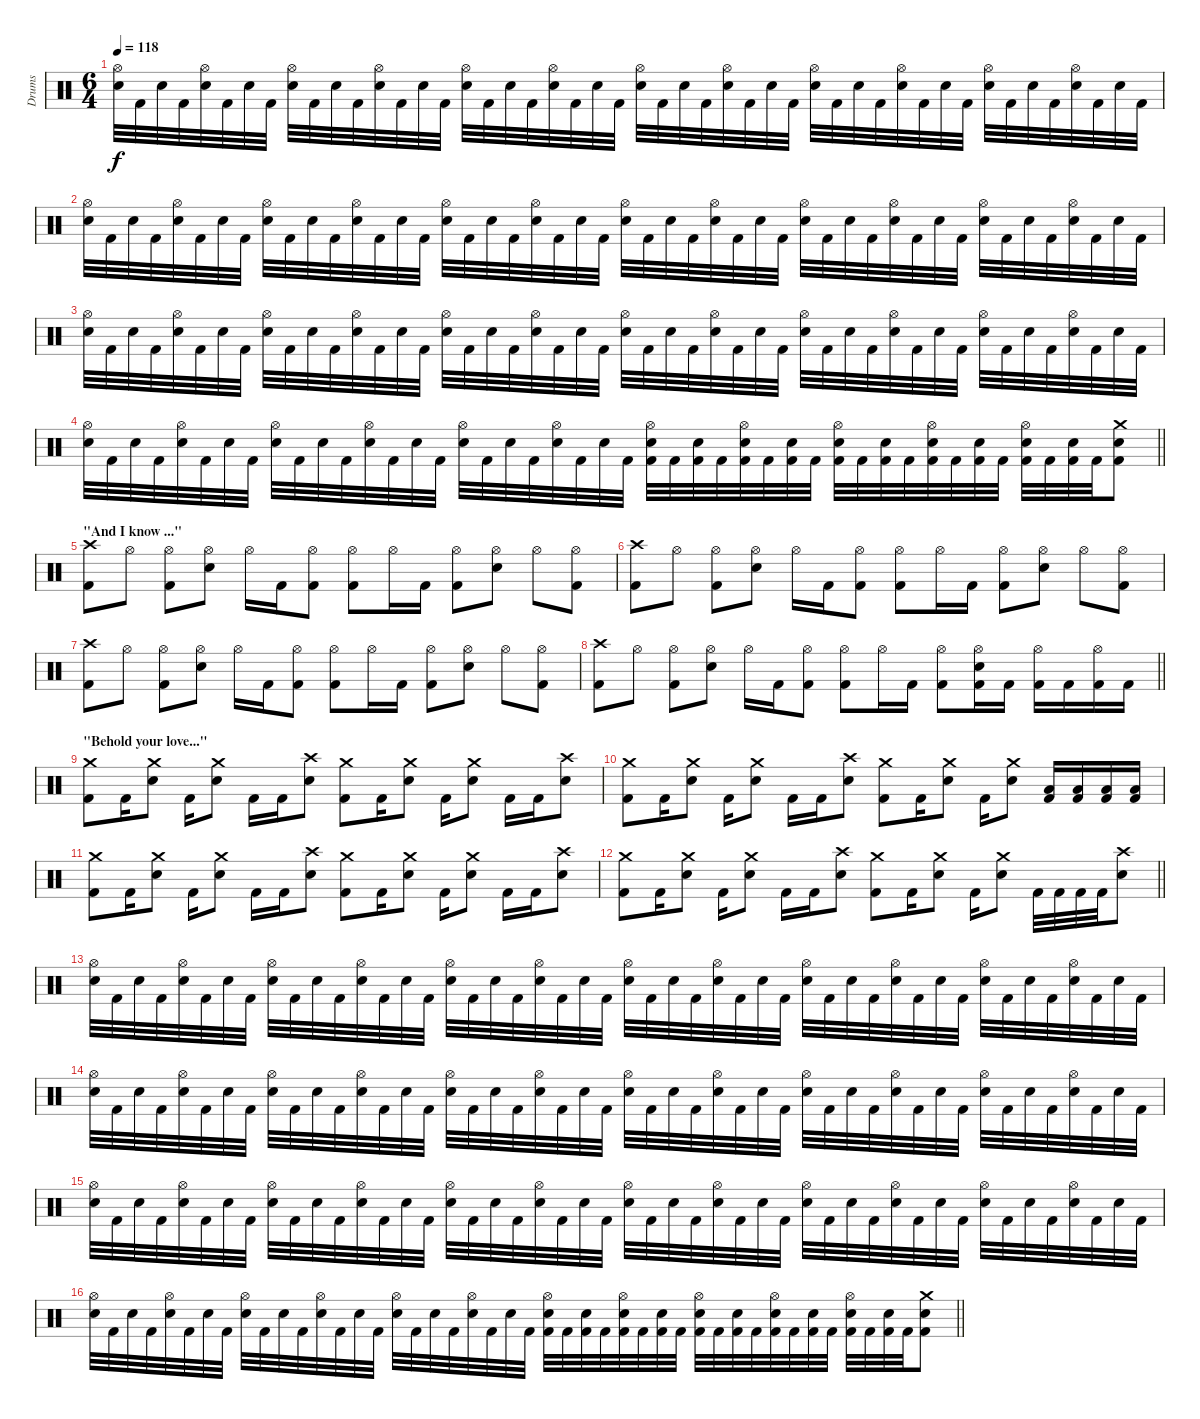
\track ("Drums" "Drums") {instrument percussion}
\staff {score}
\articulation defaults
\ts (6 4)
\section ("" "")
\tempo 118
\clef neutral
\ks c
("Hi-Hat (open)" "Electric Snare (hit)").32{dy f} "Kick (hit) 2".32 "Electric Snare (hit)".32 "Kick (hit) 2".32 ("Hi-Hat (open)" "Electric Snare (hit)").32 "Kick (hit) 2".32 "Electric Snare (hit)".32 "Kick (hit) 2".32 ("Hi-Hat (open)" "Electric Snare (hit)").32 "Kick (hit) 2".32 "Electric Snare (hit)".32 "Kick (hit) 2".32 ("Hi-Hat (open)" "Electric Snare (hit)").32 "Kick (hit) 2".32 "Electric Snare (hit)".32 "Kick (hit) 2".32 ("Hi-Hat (open)" "Electric Snare (hit)").32 "Kick (hit) 2".32 "Electric Snare (hit)".32 "Kick (hit) 2".32 ("Hi-Hat (open)" "Electric Snare (hit)").32 "Kick (hit) 2".32 "Electric Snare (hit)".32 "Kick (hit) 2".32 ("Hi-Hat (open)" "Electric Snare (hit)").32 "Kick (hit) 2".32 "Electric Snare (hit)".32 "Kick (hit) 2".32 ("Hi-Hat (open)" "Electric Snare (hit)").32 "Kick (hit) 2".32 "Electric Snare (hit)".32 "Kick (hit) 2".32 ("Hi-Hat (open)" "Electric Snare (hit)").32 "Kick (hit) 2".32 "Electric Snare (hit)".32 "Kick (hit) 2".32 ("Hi-Hat (open)" "Electric Snare (hit)").32 "Kick (hit) 2".32 "Electric Snare (hit)".32 "Kick (hit) 2".32 ("Hi-Hat (open)" "Electric Snare (hit)").32 "Kick (hit) 2".32 "Electric Snare (hit)".32 "Kick (hit) 2".32 ("Hi-Hat (open)" "Electric Snare (hit)").32 "Kick (hit) 2".32 "Electric Snare (hit)".32 "Kick (hit) 2".32 |
("Hi-Hat (open)" "Electric Snare (hit)").32 "Kick (hit) 2".32 "Electric Snare (hit)".32 "Kick (hit) 2".32 ("Hi-Hat (open)" "Electric Snare (hit)").32 "Kick (hit) 2".32 "Electric Snare (hit)".32 "Kick (hit) 2".32 ("Hi-Hat (open)" "Electric Snare (hit)").32 "Kick (hit) 2".32 "Electric Snare (hit)".32 "Kick (hit) 2".32 ("Hi-Hat (open)" "Electric Snare (hit)").32 "Kick (hit) 2".32 "Electric Snare (hit)".32 "Kick (hit) 2".32 ("Hi-Hat (open)" "Electric Snare (hit)").32 "Kick (hit) 2".32 "Electric Snare (hit)".32 "Kick (hit) 2".32 ("Hi-Hat (open)" "Electric Snare (hit)").32 "Kick (hit) 2".32 "Electric Snare (hit)".32 "Kick (hit) 2".32 ("Hi-Hat (open)" "Electric Snare (hit)").32 "Kick (hit) 2".32 "Electric Snare (hit)".32 "Kick (hit) 2".32 ("Hi-Hat (open)" "Electric Snare (hit)").32 "Kick (hit) 2".32 "Electric Snare (hit)".32 "Kick (hit) 2".32 ("Hi-Hat (open)" "Electric Snare (hit)").32 "Kick (hit) 2".32 "Electric Snare (hit)".32 "Kick (hit) 2".32 ("Hi-Hat (open)" "Electric Snare (hit)").32 "Kick (hit) 2".32 "Electric Snare (hit)".32 "Kick (hit) 2".32 ("Hi-Hat (open)" "Electric Snare (hit)").32 "Kick (hit) 2".32 "Electric Snare (hit)".32 "Kick (hit) 2".32 ("Hi-Hat (open)" "Electric Snare (hit)").32 "Kick (hit) 2".32 "Electric Snare (hit)".32 "Kick (hit) 2".32 |
("Hi-Hat (open)" "Electric Snare (hit)").32 "Kick (hit) 2".32 "Electric Snare (hit)".32 "Kick (hit) 2".32 ("Hi-Hat (open)" "Electric Snare (hit)").32 "Kick (hit) 2".32 "Electric Snare (hit)".32 "Kick (hit) 2".32 ("Hi-Hat (open)" "Electric Snare (hit)").32 "Kick (hit) 2".32 "Electric Snare (hit)".32 "Kick (hit) 2".32 ("Hi-Hat (open)" "Electric Snare (hit)").32 "Kick (hit) 2".32 "Electric Snare (hit)".32 "Kick (hit) 2".32 ("Hi-Hat (open)" "Electric Snare (hit)").32 "Kick (hit) 2".32 "Electric Snare (hit)".32 "Kick (hit) 2".32 ("Hi-Hat (open)" "Electric Snare (hit)").32 "Kick (hit) 2".32 "Electric Snare (hit)".32 "Kick (hit) 2".32 ("Hi-Hat (open)" "Electric Snare (hit)").32 "Kick (hit) 2".32 "Electric Snare (hit)".32 "Kick (hit) 2".32 ("Hi-Hat (open)" "Electric Snare (hit)").32 "Kick (hit) 2".32 "Electric Snare (hit)".32 "Kick (hit) 2".32 ("Hi-Hat (open)" "Electric Snare (hit)").32 "Kick (hit) 2".32 "Electric Snare (hit)".32 "Kick (hit) 2".32 ("Hi-Hat (open)" "Electric Snare (hit)").32 "Kick (hit) 2".32 "Electric Snare (hit)".32 "Kick (hit) 2".32 ("Hi-Hat (open)" "Electric Snare (hit)").32 "Kick (hit) 2".32 "Electric Snare (hit)".32 "Kick (hit) 2".32 ("Hi-Hat (open)" "Electric Snare (hit)").32 "Kick (hit) 2".32 "Electric Snare (hit)".32 "Kick (hit) 2".32 |
\barLineRight lightlight
("Hi-Hat (open)" "Electric Snare (hit)").32 "Kick (hit) 2".32 "Electric Snare (hit)".32 "Kick (hit) 2".32 ("Hi-Hat (open)" "Electric Snare (hit)").32 "Kick (hit) 2".32 "Electric Snare (hit)".32 "Kick (hit) 2".32 ("Hi-Hat (open)" "Electric Snare (hit)").32 "Kick (hit) 2".32 "Electric Snare (hit)".32 "Kick (hit) 2".32 ("Hi-Hat (open)" "Electric Snare (hit)").32 "Kick (hit) 2".32 "Electric Snare (hit)".32 "Kick (hit) 2".32 ("Hi-Hat (open)" "Electric Snare (hit)").32 "Kick (hit) 2".32 "Electric Snare (hit)".32 "Kick (hit) 2".32 ("Hi-Hat (open)" "Electric Snare (hit)").32 "Kick (hit) 2".32 "Electric Snare (hit)".32 "Kick (hit) 2".32 ("Hi-Hat (open)" "Electric Snare (hit)" "Kick (hit) 2").32 "Kick (hit) 2".32 ("Electric Snare (hit)" "Kick (hit) 2").32 "Kick (hit) 2".32 ("Hi-Hat (open)" "Electric Snare (hit)" "Kick (hit) 2").32 "Kick (hit) 2".32 ("Electric Snare (hit)" "Kick (hit) 2").32 "Kick (hit) 2".32 ("Hi-Hat (open)" "Electric Snare (hit)" "Kick (hit) 2").32 "Kick (hit) 2".32 ("Electric Snare (hit)" "Kick (hit) 2").32 "Kick (hit) 2".32 ("Hi-Hat (open)" "Electric Snare (hit)" "Kick (hit) 2").32 "Kick (hit) 2".32 ("Electric Snare (hit)" "Kick (hit) 2").32 "Kick (hit) 2".32 ("Hi-Hat (open)" "Electric Snare (hit)" "Kick (hit) 2").32 "Kick (hit) 2".32 ("Electric Snare (hit)" "Kick (hit) 2").32 "Kick (hit) 2".32 ("Crash medium (hit)" "Electric Snare (hit)" "Kick (hit) 2").8 |
\section ("" "\"And I know ...\"")
("Crash high (hit)" "Kick (hit) 2").8 "Hi-Hat (open)".8 ("Hi-Hat (open)" "Kick (hit) 2").8 ("Hi-Hat (open)" "Electric Snare (hit)").8 "Hi-Hat (open)".16 "Kick (hit) 2".16 ("Hi-Hat (open)" "Kick (hit) 2").8 ("Hi-Hat (open)" "Kick (hit) 2").8 "Hi-Hat (open)".16 "Kick (hit) 2".16 ("Hi-Hat (open)" "Kick (hit) 2").8 ("Hi-Hat (open)" "Electric Snare (hit)").8 "Hi-Hat (open)".8 ("Hi-Hat (open)" "Kick (hit) 2").8 |
("Crash high (hit)" "Kick (hit) 2").8 "Hi-Hat (open)".8 ("Hi-Hat (open)" "Kick (hit) 2").8 ("Hi-Hat (open)" "Electric Snare (hit)").8 "Hi-Hat (open)".16 "Kick (hit) 2".16 ("Hi-Hat (open)" "Kick (hit) 2").8 ("Hi-Hat (open)" "Kick (hit) 2").8 "Hi-Hat (open)".16 "Kick (hit) 2".16 ("Hi-Hat (open)" "Kick (hit) 2").8 ("Hi-Hat (open)" "Electric Snare (hit)").8 "Hi-Hat (open)".8 ("Hi-Hat (open)" "Kick (hit) 2").8 |
("Crash high (hit)" "Kick (hit) 2").8 "Hi-Hat (open)".8 ("Hi-Hat (open)" "Kick (hit) 2").8 ("Hi-Hat (open)" "Electric Snare (hit)").8 "Hi-Hat (open)".16 "Kick (hit) 2".16 ("Hi-Hat (open)" "Kick (hit) 2").8 ("Hi-Hat (open)" "Kick (hit) 2").8 "Hi-Hat (open)".16 "Kick (hit) 2".16 ("Hi-Hat (open)" "Kick (hit) 2").8 ("Hi-Hat (open)" "Electric Snare (hit)").8 "Hi-Hat (open)".8 ("Hi-Hat (open)" "Kick (hit) 2").8 |
\barLineRight lightlight
("Crash high (hit)" "Kick (hit) 2").8 "Hi-Hat (open)".8 ("Hi-Hat (open)" "Kick (hit) 2").8 ("Hi-Hat (open)" "Electric Snare (hit)").8 "Hi-Hat (open)".16 "Kick (hit) 2".16 ("Hi-Hat (open)" "Kick (hit) 2").8 ("Hi-Hat (open)" "Kick (hit) 2").8 "Hi-Hat (open)".16 "Kick (hit) 2".16 ("Hi-Hat (open)" "Kick (hit) 2").8 ("Hi-Hat (open)" "Electric Snare (hit)" "Kick (hit) 2").16 "Kick (hit) 2".16 ("Hi-Hat (open)" "Kick (hit) 2").16 "Kick (hit) 2".16 ("Hi-Hat (open)" "Kick (hit) 2").16 "Kick (hit) 2".16 |
\section ("" "\"Behold your love...\"")
("Crash medium (hit)" "Kick (hit) 2").8 "Kick (hit) 2".16 ("Crash medium (hit)" "Electric Snare (hit)").8 "Kick (hit) 2".16 ("Crash medium (hit)" "Electric Snare (hit)").8 "Kick (hit) 2".16 "Kick (hit) 2".16 ("Crash high (hit)" "Electric Snare (hit)").8 ("Crash medium (hit)" "Kick (hit) 2").8 "Kick (hit) 2".16 ("Crash medium (hit)" "Electric Snare (hit)").8 "Kick (hit) 2".16 ("Crash medium (hit)" "Electric Snare (hit)").8 "Kick (hit) 2".16 "Kick (hit) 2".16 ("Crash high (hit)" "Electric Snare (hit)").8 |
("Crash medium (hit)" "Kick (hit) 2").8 "Kick (hit) 2".16 ("Crash medium (hit)" "Electric Snare (hit)").8 "Kick (hit) 2".16 ("Crash medium (hit)" "Electric Snare (hit)").8 "Kick (hit) 2".16 "Kick (hit) 2".16 ("Crash high (hit)" "Electric Snare (hit)").8 ("Crash medium (hit)" "Kick (hit) 2").8 "Kick (hit) 2".16 ("Crash medium (hit)" "Electric Snare (hit)").8 "Kick (hit) 2".16 ("Crash medium (hit)" "Electric Snare (hit)").8 ("Low Tom (hit)" "Kick (hit) 2").16 ("Low Tom (hit)" "Kick (hit) 2").16 ("Low Tom (hit)" "Kick (hit) 2").16 ("Low Tom (hit)" "Kick (hit) 2").16 |
("Crash medium (hit)" "Kick (hit) 2").8 "Kick (hit) 2".16 ("Crash medium (hit)" "Electric Snare (hit)").8 "Kick (hit) 2".16 ("Crash medium (hit)" "Electric Snare (hit)").8 "Kick (hit) 2".16 "Kick (hit) 2".16 ("Crash high (hit)" "Electric Snare (hit)").8 ("Crash medium (hit)" "Kick (hit) 2").8 "Kick (hit) 2".16 ("Crash medium (hit)" "Electric Snare (hit)").8 "Kick (hit) 2".16 ("Crash medium (hit)" "Electric Snare (hit)").8 "Kick (hit) 2".16 "Kick (hit) 2".16 ("Crash high (hit)" "Electric Snare (hit)").8 |
\barLineRight lightlight
("Crash medium (hit)" "Kick (hit) 2").8 "Kick (hit) 2".16 ("Crash medium (hit)" "Electric Snare (hit)").8 "Kick (hit) 2".16 ("Crash medium (hit)" "Electric Snare (hit)").8 "Kick (hit) 2".16 "Kick (hit) 2".16 ("Crash high (hit)" "Electric Snare (hit)").8 ("Crash medium (hit)" "Kick (hit) 2").8 "Kick (hit) 2".16 ("Crash medium (hit)" "Electric Snare (hit)").8 "Kick (hit) 2".16 ("Crash medium (hit)" "Electric Snare (hit)").8 "Kick (hit) 2".32 "Kick (hit) 2".32 "Kick (hit) 2".32 "Kick (hit) 2".32 ("Crash high (hit)" "Electric Snare (hit)").8 |
\section ("" "")
("Hi-Hat (open)" "Electric Snare (hit)").32 "Kick (hit) 2".32 "Electric Snare (hit)".32 "Kick (hit) 2".32 ("Hi-Hat (open)" "Electric Snare (hit)").32 "Kick (hit) 2".32 "Electric Snare (hit)".32 "Kick (hit) 2".32 ("Hi-Hat (open)" "Electric Snare (hit)").32 "Kick (hit) 2".32 "Electric Snare (hit)".32 "Kick (hit) 2".32 ("Hi-Hat (open)" "Electric Snare (hit)").32 "Kick (hit) 2".32 "Electric Snare (hit)".32 "Kick (hit) 2".32 ("Hi-Hat (open)" "Electric Snare (hit)").32 "Kick (hit) 2".32 "Electric Snare (hit)".32 "Kick (hit) 2".32 ("Hi-Hat (open)" "Electric Snare (hit)").32 "Kick (hit) 2".32 "Electric Snare (hit)".32 "Kick (hit) 2".32 ("Hi-Hat (open)" "Electric Snare (hit)").32 "Kick (hit) 2".32 "Electric Snare (hit)".32 "Kick (hit) 2".32 ("Hi-Hat (open)" "Electric Snare (hit)").32 "Kick (hit) 2".32 "Electric Snare (hit)".32 "Kick (hit) 2".32 ("Hi-Hat (open)" "Electric Snare (hit)").32 "Kick (hit) 2".32 "Electric Snare (hit)".32 "Kick (hit) 2".32 ("Hi-Hat (open)" "Electric Snare (hit)").32 "Kick (hit) 2".32 "Electric Snare (hit)".32 "Kick (hit) 2".32 ("Hi-Hat (open)" "Electric Snare (hit)").32 "Kick (hit) 2".32 "Electric Snare (hit)".32 "Kick (hit) 2".32 ("Hi-Hat (open)" "Electric Snare (hit)").32 "Kick (hit) 2".32 "Electric Snare (hit)".32 "Kick (hit) 2".32 |
("Hi-Hat (open)" "Electric Snare (hit)").32 "Kick (hit) 2".32 "Electric Snare (hit)".32 "Kick (hit) 2".32 ("Hi-Hat (open)" "Electric Snare (hit)").32 "Kick (hit) 2".32 "Electric Snare (hit)".32 "Kick (hit) 2".32 ("Hi-Hat (open)" "Electric Snare (hit)").32 "Kick (hit) 2".32 "Electric Snare (hit)".32 "Kick (hit) 2".32 ("Hi-Hat (open)" "Electric Snare (hit)").32 "Kick (hit) 2".32 "Electric Snare (hit)".32 "Kick (hit) 2".32 ("Hi-Hat (open)" "Electric Snare (hit)").32 "Kick (hit) 2".32 "Electric Snare (hit)".32 "Kick (hit) 2".32 ("Hi-Hat (open)" "Electric Snare (hit)").32 "Kick (hit) 2".32 "Electric Snare (hit)".32 "Kick (hit) 2".32 ("Hi-Hat (open)" "Electric Snare (hit)").32 "Kick (hit) 2".32 "Electric Snare (hit)".32 "Kick (hit) 2".32 ("Hi-Hat (open)" "Electric Snare (hit)").32 "Kick (hit) 2".32 "Electric Snare (hit)".32 "Kick (hit) 2".32 ("Hi-Hat (open)" "Electric Snare (hit)").32 "Kick (hit) 2".32 "Electric Snare (hit)".32 "Kick (hit) 2".32 ("Hi-Hat (open)" "Electric Snare (hit)").32 "Kick (hit) 2".32 "Electric Snare (hit)".32 "Kick (hit) 2".32 ("Hi-Hat (open)" "Electric Snare (hit)").32 "Kick (hit) 2".32 "Electric Snare (hit)".32 "Kick (hit) 2".32 ("Hi-Hat (open)" "Electric Snare (hit)").32 "Kick (hit) 2".32 "Electric Snare (hit)".32 "Kick (hit) 2".32 |
("Hi-Hat (open)" "Electric Snare (hit)").32 "Kick (hit) 2".32 "Electric Snare (hit)".32 "Kick (hit) 2".32 ("Hi-Hat (open)" "Electric Snare (hit)").32 "Kick (hit) 2".32 "Electric Snare (hit)".32 "Kick (hit) 2".32 ("Hi-Hat (open)" "Electric Snare (hit)").32 "Kick (hit) 2".32 "Electric Snare (hit)".32 "Kick (hit) 2".32 ("Hi-Hat (open)" "Electric Snare (hit)").32 "Kick (hit) 2".32 "Electric Snare (hit)".32 "Kick (hit) 2".32 ("Hi-Hat (open)" "Electric Snare (hit)").32 "Kick (hit) 2".32 "Electric Snare (hit)".32 "Kick (hit) 2".32 ("Hi-Hat (open)" "Electric Snare (hit)").32 "Kick (hit) 2".32 "Electric Snare (hit)".32 "Kick (hit) 2".32 ("Hi-Hat (open)" "Electric Snare (hit)").32 "Kick (hit) 2".32 "Electric Snare (hit)".32 "Kick (hit) 2".32 ("Hi-Hat (open)" "Electric Snare (hit)").32 "Kick (hit) 2".32 "Electric Snare (hit)".32 "Kick (hit) 2".32 ("Hi-Hat (open)" "Electric Snare (hit)").32 "Kick (hit) 2".32 "Electric Snare (hit)".32 "Kick (hit) 2".32 ("Hi-Hat (open)" "Electric Snare (hit)").32 "Kick (hit) 2".32 "Electric Snare (hit)".32 "Kick (hit) 2".32 ("Hi-Hat (open)" "Electric Snare (hit)").32 "Kick (hit) 2".32 "Electric Snare (hit)".32 "Kick (hit) 2".32 ("Hi-Hat (open)" "Electric Snare (hit)").32 "Kick (hit) 2".32 "Electric Snare (hit)".32 "Kick (hit) 2".32 |
\barLineRight lightlight
("Hi-Hat (open)" "Electric Snare (hit)").32 "Kick (hit) 2".32 "Electric Snare (hit)".32 "Kick (hit) 2".32 ("Hi-Hat (open)" "Electric Snare (hit)").32 "Kick (hit) 2".32 "Electric Snare (hit)".32 "Kick (hit) 2".32 ("Hi-Hat (open)" "Electric Snare (hit)").32 "Kick (hit) 2".32 "Electric Snare (hit)".32 "Kick (hit) 2".32 ("Hi-Hat (open)" "Electric Snare (hit)").32 "Kick (hit) 2".32 "Electric Snare (hit)".32 "Kick (hit) 2".32 ("Hi-Hat (open)" "Electric Snare (hit)").32 "Kick (hit) 2".32 "Electric Snare (hit)".32 "Kick (hit) 2".32 ("Hi-Hat (open)" "Electric Snare (hit)").32 "Kick (hit) 2".32 "Electric Snare (hit)".32 "Kick (hit) 2".32 ("Hi-Hat (open)" "Electric Snare (hit)" "Kick (hit) 2").32 "Kick (hit) 2".32 ("Electric Snare (hit)" "Kick (hit) 2").32 "Kick (hit) 2".32 ("Hi-Hat (open)" "Electric Snare (hit)" "Kick (hit) 2").32 "Kick (hit) 2".32 ("Electric Snare (hit)" "Kick (hit) 2").32 "Kick (hit) 2".32 ("Hi-Hat (open)" "Electric Snare (hit)" "Kick (hit) 2").32 "Kick (hit) 2".32 ("Electric Snare (hit)" "Kick (hit) 2").32 "Kick (hit) 2".32 ("Hi-Hat (open)" "Electric Snare (hit)" "Kick (hit) 2").32 "Kick (hit) 2".32 ("Electric Snare (hit)" "Kick (hit) 2").32 "Kick (hit) 2".32 ("Hi-Hat (open)" "Electric Snare (hit)" "Kick (hit) 2").32 "Kick (hit) 2".32 ("Electric Snare (hit)" "Kick (hit) 2").32 "Kick (hit) 2".32 ("Crash medium (hit)" "Electric Snare (hit)" "Kick (hit) 2").8
